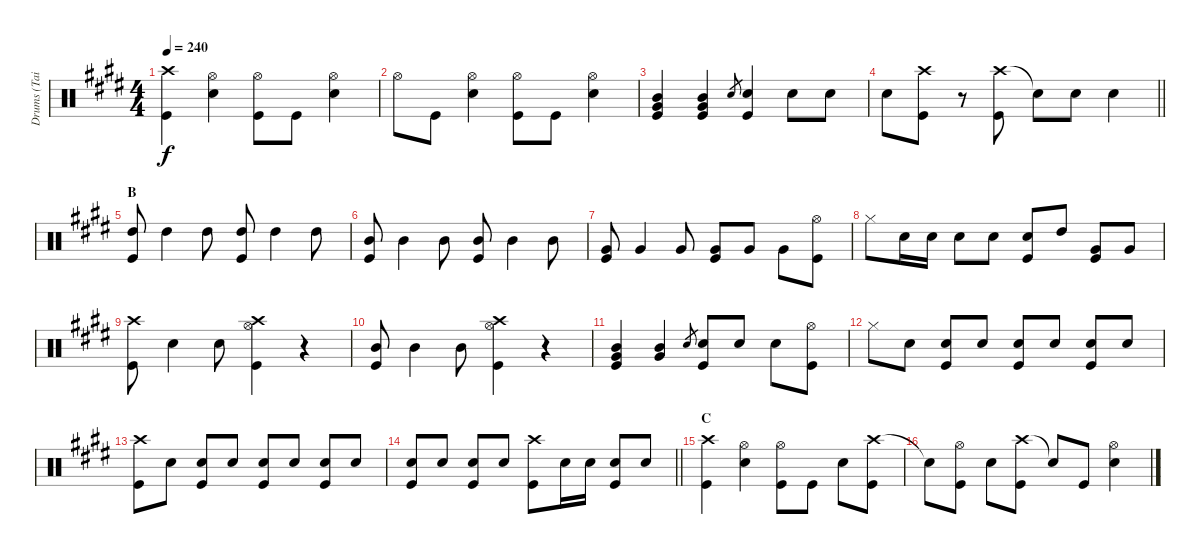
\track ("Drums (Tainaka Ritsu)" "Drums (Tai") {instrument percussion}
\staff {score}
\articulation defaults
\ts (4 4)
\tempo 240
\clef neutral
\ks e
("Crash high (hit)" "Kick (hit)").4{dy f} ("Hi-Hat (open)" "Snare (hit) 2").4 ("Hi-Hat (open)" "Kick (hit)").8 "Kick (hit)".8 ("Hi-Hat (open)" "Snare (hit) 2").4 |
"Hi-Hat (open)".8 "Kick (hit)".8 ("Hi-Hat (open)" "Snare (hit) 2").4 ("Hi-Hat (open)" "Kick (hit)").8 "Kick (hit)".8 ("Hi-Hat (open)" "Snare (hit) 2").4 |
("Mid Tom (hit)" "Very Low Tom (hit)" "Kick (hit)").4 ("Mid Tom (hit)" "Very Low Tom (hit)" "Kick (hit)").4 "Snare (hit) 2".8{gr} ("Snare (hit) 2" "Kick (hit)").4 "Snare (hit) 2".8 "Snare (hit) 2".8 |
\barLineRight lightlight "Snare (hit) 2".8
("Crash high (hit)" "Kick (hit)").8 r.8 ("Crash high (hit)" "Kick (hit)").8 "Snare (hit)"{t}.8 "Snare (hit) 2".8 "Snare (hit) 2".4 |
\section ("" "B")
("High Tom (hit)" "Kick (hit)").8 "High Tom (hit)".4 "High Tom (hit)".8 ("High Tom (hit)" "Kick (hit)").8 "High Tom (hit)".4 "High Tom (hit)".8 |
("Mid Tom (hit)" "Kick (hit)").8 "Mid Tom (hit)".4 "Mid Tom (hit)".8 ("Mid Tom (hit)" "Kick (hit)").8 "Mid Tom (hit)".4 "Mid Tom (hit)".8 |
("Very Low Tom (hit)" "Kick (hit)").8 "Very Low Tom (hit)".4 "Very Low Tom (hit)".8 ("Very Low Tom (hit)" "Kick (hit)").8 "Very Low Tom (hit)".8 "Very Low Tom (hit)".8 ("Hi-Hat (open)" "Kick (hit)").8 |
"Hi-Hat (closed)".8 "Snare (hit) 2".16 "Snare (hit) 2".16 "Snare (hit) 2".8 "Snare (hit) 2".8 ("Snare (hit) 2" "Kick (hit)").8 "High Tom (hit)".8 ("Very Low Tom (hit)" "Kick (hit)").8 "Very Low Tom (hit)".8 |
("Crash high (hit)" "Kick (hit)").8 "Snare (hit) 2".4 "Snare (hit) 2".8 ("Crash high (hit)" "Hi-Hat (open)" "Kick (hit)").4 r.4 |
("Mid Tom (hit)" "Kick (hit)").8 "Mid Tom (hit)".4 "Mid Tom (hit)".8 ("Crash high (hit)" "Hi-Hat (open)" "Kick (hit)").4 r.4 |
("Mid Tom (hit)" "Very Low Tom (hit)" "Kick (hit)").4 ("Mid Tom (hit)" "Very Low Tom (hit)").4 "Snare (hit) 2".8{gr} ("Snare (hit) 2" "Kick (hit)").8 "Snare (hit) 2".8 "Snare (hit) 2".8 ("Hi-Hat (open)" "Kick (hit)").8 |
"Hi-Hat (closed)".8 "Snare (hit) 2".8 ("Snare (hit) 2" "Kick (hit)").8 "Snare (hit) 2".8 ("Snare (hit) 2" "Kick (hit)").8 "Snare (hit) 2".8 ("Snare (hit) 2" "Kick (hit)").8 "Snare (hit) 2".8 |
("Crash high (hit)" "Kick (hit)").8 "Snare (hit) 2".8 ("Snare (hit) 2" "Kick (hit)").8 "Snare (hit) 2".8 ("Snare (hit) 2" "Kick (hit)").8 "Snare (hit) 2".8 ("Snare (hit) 2" "Kick (hit)").8 "Snare (hit) 2".8 |
\barLineRight lightlight
("Snare (hit) 2" "Kick (hit)").8 "Snare (hit) 2".8 ("Snare (hit) 2" "Kick (hit)").8 "Snare (hit) 2".8 ("Crash high (hit)" "Kick (hit)").8 "Snare (hit) 2".16 "Snare (hit) 2".16 ("Snare (hit) 2" "Kick (hit)").8 "Snare (hit) 2".8 |
\section ("" "C")
("Crash high (hit)" "Kick (hit)").4 ("Hi-Hat (open)" "Snare (hit) 2").4 ("Hi-Hat (open)" "Kick (hit)").8 "Kick (hit)".8 "Snare (hit) 2".8 ("Crash high (hit)" "Kick (hit)").8 |
"Snare (hit)"{t}.8 ("Hi-Hat (open)" "Kick (hit)").8 "Snare (hit) 2".8 ("Crash high (hit)" "Kick (hit)").8 "Snare (hit)"{t}.8 "Kick (hit)".8 ("Hi-Hat (open)" "Snare (hit) 2").4
